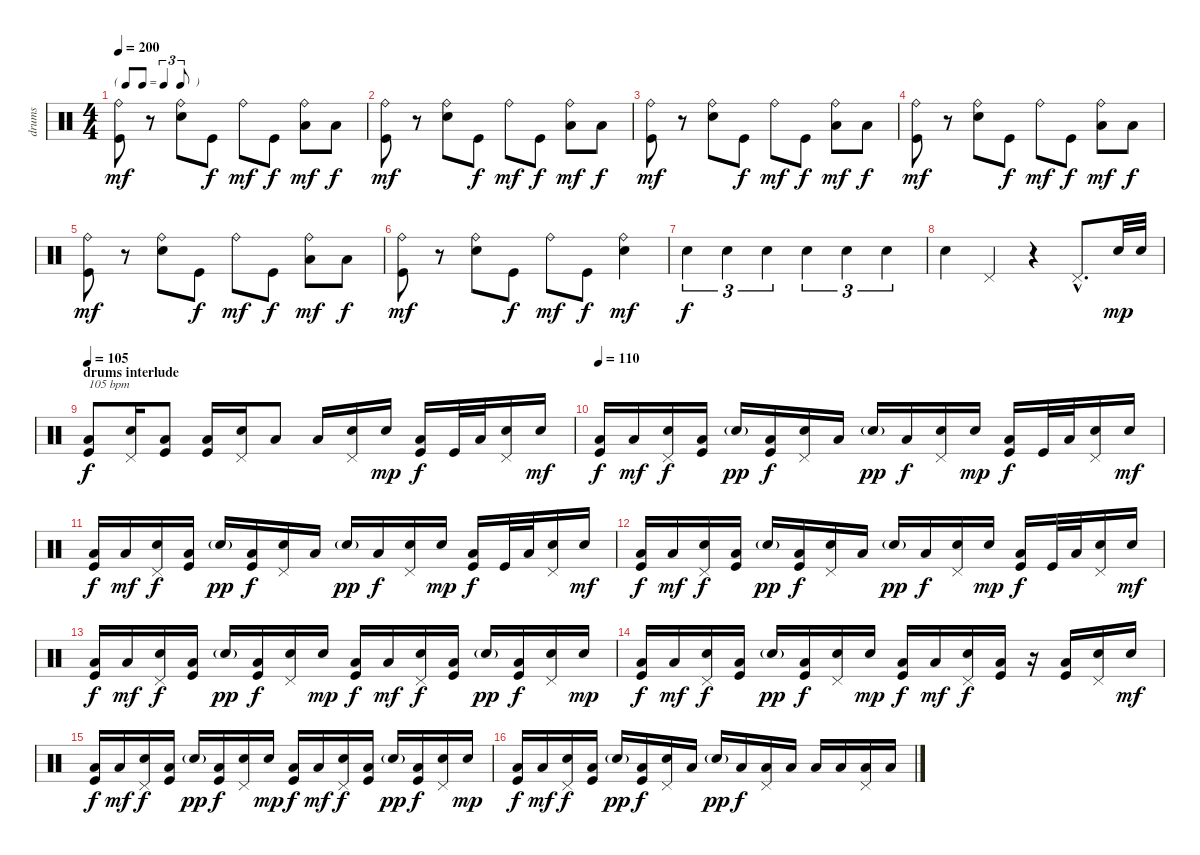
\track ("drums" "drums") {instrument percussion}
\staff {score}
\articulation defaults
\ts (4 4)
\tf triplet8th
\tempo 200
\clef neutral
\ks c
("Ride (bell)" "Kick (hit)").8{dy mf} r.8 ("Ride (bell)" "Snare (hit) 2").8 "Kick (hit)".8{dy f} "Ride (bell)".8{dy mf} "Kick (hit)".8{dy f} ("Ride (bell)" "Low Tom (hit)").8{dy mf} "Low Tom (hit)".8{dy f} |
("Ride (bell)" "Kick (hit)").8{dy mf} r.8 ("Ride (bell)" "Snare (hit) 2").8 "Kick (hit)".8{dy f} "Ride (bell)".8{dy mf} "Kick (hit)".8{dy f} ("Ride (bell)" "Low Tom (hit)").8{dy mf} "Low Tom (hit)".8{dy f} |
("Ride (bell)" "Kick (hit)").8{dy mf} r.8 ("Ride (bell)" "Snare (hit) 2").8 "Kick (hit)".8{dy f} "Ride (bell)".8{dy mf} "Kick (hit)".8{dy f} ("Ride (bell)" "Low Tom (hit)").8{dy mf} "Low Tom (hit)".8{dy f} |
("Ride (bell)" "Kick (hit)").8{dy mf} r.8 ("Ride (bell)" "Snare (hit) 2").8 "Kick (hit)".8{dy f} "Ride (bell)".8{dy mf} "Kick (hit)".8{dy f} ("Ride (bell)" "Low Tom (hit)").8{dy mf} "Low Tom (hit)".8{dy f} |
("Ride (bell)" "Kick (hit)").8{dy mf} r.8 ("Ride (bell)" "Snare (hit) 2").8 "Kick (hit)".8{dy f} "Ride (bell)".8{dy mf} "Kick (hit)".8{dy f} ("Ride (bell)" "Low Tom (hit)").8{dy mf} "Low Tom (hit)".8{dy f} |
("Ride (bell)" "Kick (hit)").8{dy mf} r.8 ("Ride (bell)" "Snare (hit) 2").8 "Kick (hit)".8{dy f} "Ride (bell)".8{dy mf} "Kick (hit)".8{dy f} ("Ride (bell)" "Snare (hit) 2").4{dy mf} |
"Snare (hit) 2".4{tu (3 2) dy f} "Snare (hit) 2".4{tu (3 2)} "Snare (hit) 2".4{tu (3 2)} "Snare (hit) 2".4{tu (3 2)} "Snare (hit) 2".4{tu (3 2)} "Snare (hit) 2".4{tu (3 2)} |
"Snare (hit) 2".4 "Pedal Hi-Hat (hit)".4 r.4 "Pedal Hi-Hat (hit)"{hac}.8{d} "Snare (hit) 2".32{dy mp} "Snare (hit) 2".32 |
\section ("" "drums interlude")
\tempo 105
("Low Tom (hit)" "Kick (hit)").8{txt "105 bpm" dy f} ("Pedal Hi-Hat (hit)" "Snare (hit) 2").16 ("Low Floor Tom (hit)" "Kick (hit)").8 ("Low Floor Tom (hit)" "Kick (hit)").16 ("Pedal Hi-Hat (hit)" "Snare (hit) 2").16 "Low Tom (hit)".8 "Low Tom (hit)".16 ("Pedal Hi-Hat (hit)" "Snare (hit) 2").16 "Snare (hit) 2".16{dy mp} ("Low Floor Tom (hit)" "Kick (hit)").16{dy f} "Kick (hit)".32 "Low Floor Tom (hit)".32 ("Pedal Hi-Hat (hit)" "Snare (hit) 2").16 "Snare (hit) 2".16{dy mf} |
\tempo 110
("Low Tom (hit)" "Kick (hit)").16{dy f} "Low Tom (hit)".16{dy mf} ("Pedal Hi-Hat (hit)" "Snare (hit) 2").16{dy f} ("Low Floor Tom (hit)" "Kick (hit)").16 "Snare (hit) 2"{g}.16{dy pp} ("Low Floor Tom (hit)" "Kick (hit)").16{dy f} ("Pedal Hi-Hat (hit)" "Snare (hit) 2").16 "Low Tom (hit)".16 "Snare (hit) 2"{g}.16{dy pp} "Low Tom (hit)".16{dy f} ("Pedal Hi-Hat (hit)" "Snare (hit) 2").16 "Snare (hit) 2".16{dy mp} ("Low Floor Tom (hit)" "Kick (hit)").16{dy f} "Kick (hit)".32 "Low Floor Tom (hit)".32 ("Pedal Hi-Hat (hit)" "Snare (hit) 2").16 "Snare (hit) 2".16{dy mf} |
("Low Tom (hit)" "Kick (hit)").16{dy f} "Low Tom (hit)".16{dy mf} ("Pedal Hi-Hat (hit)" "Snare (hit) 2").16{dy f} ("Low Floor Tom (hit)" "Kick (hit)").16 "Snare (hit) 2"{g}.16{dy pp} ("Low Floor Tom (hit)" "Kick (hit)").16{dy f} ("Pedal Hi-Hat (hit)" "Snare (hit) 2").16 "Low Tom (hit)".16 "Snare (hit) 2"{g}.16{dy pp} "Low Tom (hit)".16{dy f} ("Pedal Hi-Hat (hit)" "Snare (hit) 2").16 "Snare (hit) 2".16{dy mp} ("Low Floor Tom (hit)" "Kick (hit)").16{dy f} "Kick (hit)".32 "Low Floor Tom (hit)".32 ("Pedal Hi-Hat (hit)" "Snare (hit) 2").16 "Snare (hit) 2".16{dy mf} |
("Low Tom (hit)" "Kick (hit)").16{dy f} "Low Tom (hit)".16{dy mf} ("Pedal Hi-Hat (hit)" "Snare (hit) 2").16{dy f} ("Low Floor Tom (hit)" "Kick (hit)").16 "Snare (hit) 2"{g}.16{dy pp} ("Low Floor Tom (hit)" "Kick (hit)").16{dy f} ("Pedal Hi-Hat (hit)" "Snare (hit) 2").16 "Low Tom (hit)".16 "Snare (hit) 2"{g}.16{dy pp} "Low Tom (hit)".16{dy f} ("Pedal Hi-Hat (hit)" "Snare (hit) 2").16 "Snare (hit) 2".16{dy mp} ("Low Floor Tom (hit)" "Kick (hit)").16{dy f} "Kick (hit)".32 "Low Floor Tom (hit)".32 ("Pedal Hi-Hat (hit)" "Snare (hit) 2").16 "Snare (hit) 2".16{dy mf} |
("Low Tom (hit)" "Kick (hit)").16{dy f} "Low Tom (hit)".16{dy mf} ("Pedal Hi-Hat (hit)" "Snare (hit) 2").16{dy f} ("Low Floor Tom (hit)" "Kick (hit)").16 "Snare (hit) 2"{g}.16{dy pp} ("Low Floor Tom (hit)" "Kick (hit)").16{dy f} ("Pedal Hi-Hat (hit)" "Snare (hit) 2").16 "Snare (hit) 2".16{dy mp} ("Low Tom (hit)" "Kick (hit)").16{dy f} "Low Tom (hit)".16{dy mf} ("Pedal Hi-Hat (hit)" "Snare (hit) 2").16{dy f} ("Low Floor Tom (hit)" "Kick (hit)").16 "Snare (hit) 2"{g}.16{dy pp} ("Low Floor Tom (hit)" "Kick (hit)").16{dy f} ("Pedal Hi-Hat (hit)" "Snare (hit) 2").16 "Snare (hit) 2".16{dy mp} |
("Low Tom (hit)" "Kick (hit)").16{dy f} "Low Tom (hit)".16{dy mf} ("Pedal Hi-Hat (hit)" "Snare (hit) 2").16{dy f} ("Low Floor Tom (hit)" "Kick (hit)").16 "Snare (hit) 2"{g}.16{dy pp} ("Low Floor Tom (hit)" "Kick (hit)").16{dy f} ("Pedal Hi-Hat (hit)" "Snare (hit) 2").16 "Snare (hit) 2".16{dy mp} ("Low Tom (hit)" "Kick (hit)").16{dy f} "Low Tom (hit)".16{dy mf} ("Pedal Hi-Hat (hit)" "Snare (hit) 2").16{dy f} ("Low Floor Tom (hit)" "Kick (hit)").16 r.16 ("Low Floor Tom (hit)" "Kick (hit)").16 ("Pedal Hi-Hat (hit)" "Snare (hit) 2").16 "Snare (hit) 2".16{dy mf} |
("Low Tom (hit)" "Kick (hit)").16{dy f} "Low Tom (hit)".16{dy mf} ("Pedal Hi-Hat (hit)" "Snare (hit) 2").16{dy f} ("Low Floor Tom (hit)" "Kick (hit)").16 "Snare (hit) 2"{g}.16{dy pp} ("Low Floor Tom (hit)" "Kick (hit)").16{dy f} ("Pedal Hi-Hat (hit)" "Snare (hit) 2").16 "Snare (hit) 2".16{dy mp} ("Low Tom (hit)" "Kick (hit)").16{dy f} "Low Tom (hit)".16{dy mf} ("Pedal Hi-Hat (hit)" "Snare (hit) 2").16{dy f} ("Low Floor Tom (hit)" "Kick (hit)").16 "Snare (hit) 2"{g}.16{dy pp} ("Low Floor Tom (hit)" "Kick (hit)").16{dy f} ("Pedal Hi-Hat (hit)" "Snare (hit) 2").16 "Snare (hit) 2".16{dy mp} |
("Low Tom (hit)" "Kick (hit)").16{dy f} "Low Tom (hit)".16{dy mf} ("Pedal Hi-Hat (hit)" "Snare (hit) 2").16{dy f} ("Low Floor Tom (hit)" "Kick (hit)").16 "Snare (hit) 2"{g}.16{dy pp} ("Low Floor Tom (hit)" "Kick (hit)").16{dy f} ("Pedal Hi-Hat (hit)" "Snare (hit) 2").16 "Low Tom (hit)".16 "Snare (hit) 2"{g}.16{dy pp} "Low Tom (hit)".16{dy f} ("Pedal Hi-Hat (hit)" "Low Tom (hit)").16 "Low Floor Tom (hit)".16 "Low Tom (hit)".16 "Low Floor Tom (hit)".16 ("Pedal Hi-Hat (hit)" "Low Tom (hit)").16 "Low Tom (hit)".16
